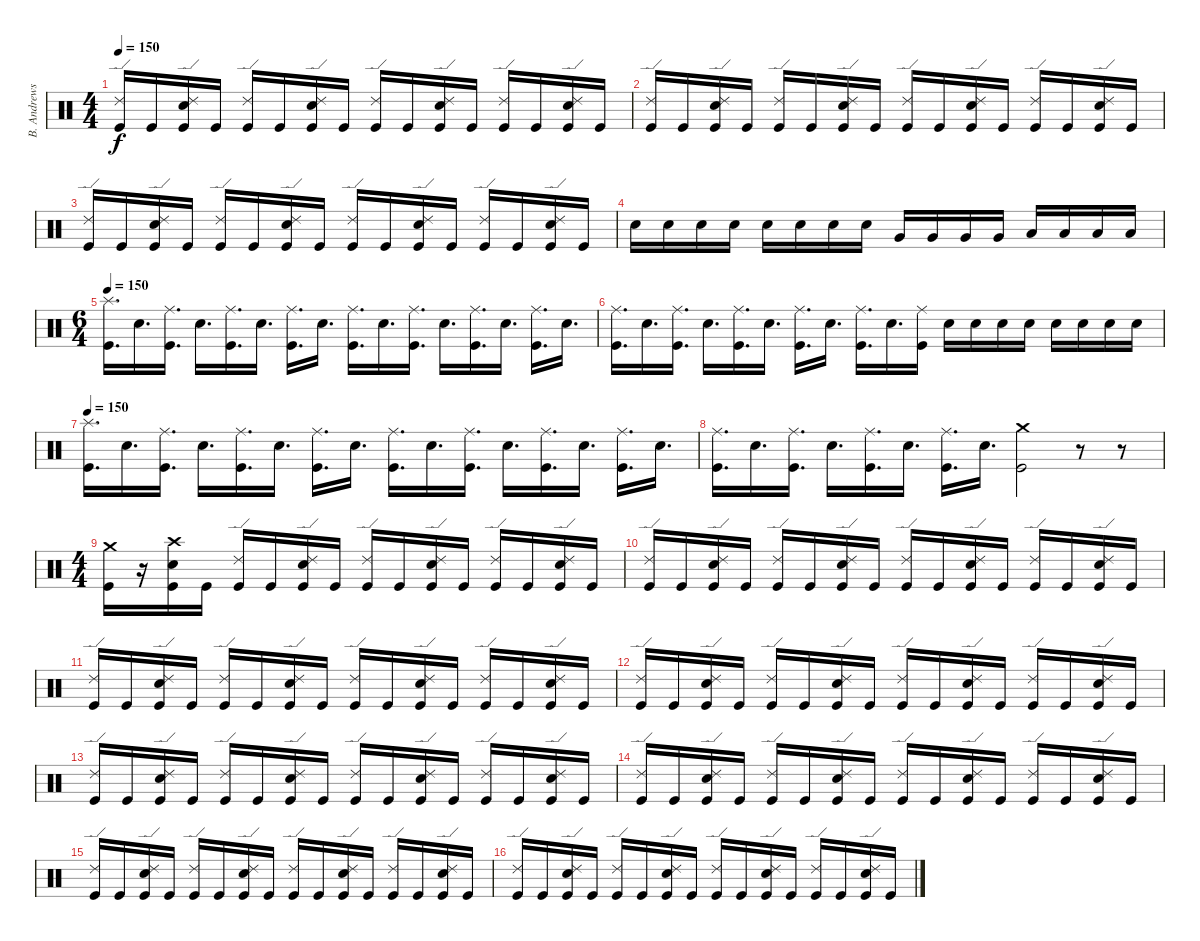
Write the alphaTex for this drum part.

\track ("B. Andrews" "B. Andrews") {instrument percussion}
\staff {score}
\articulation defaults
\ts (4 4)
\tempo 150
\clef neutral
\ks c
("Ride (edge) 2" "Kick (hit)").16{dy f} "Kick (hit)".16 ("Ride (edge) 2" "Electric Snare (hit)" "Kick (hit)").16 "Kick (hit)".16 ("Ride (edge) 2" "Kick (hit)").16 "Kick (hit)".16 ("Ride (edge) 2" "Electric Snare (hit)" "Kick (hit)").16 "Kick (hit)".16 ("Ride (edge) 2" "Kick (hit)").16 "Kick (hit)".16 ("Ride (edge) 2" "Electric Snare (hit)" "Kick (hit)").16 "Kick (hit)".16 ("Ride (edge) 2" "Kick (hit)").16 "Kick (hit)".16 ("Ride (edge) 2" "Electric Snare (hit)" "Kick (hit)").16 "Kick (hit)".16 |
("Ride (edge) 2" "Kick (hit)").16 "Kick (hit)".16 ("Ride (edge) 2" "Electric Snare (hit)" "Kick (hit)").16 "Kick (hit)".16 ("Ride (edge) 2" "Kick (hit)").16 "Kick (hit)".16 ("Ride (edge) 2" "Electric Snare (hit)" "Kick (hit)").16 "Kick (hit)".16 ("Ride (edge) 2" "Kick (hit)").16 "Kick (hit)".16 ("Ride (edge) 2" "Electric Snare (hit)" "Kick (hit)").16 "Kick (hit)".16 ("Ride (edge) 2" "Kick (hit)").16 "Kick (hit)".16 ("Ride (edge) 2" "Electric Snare (hit)" "Kick (hit)").16 "Kick (hit)".16 |
("Ride (edge) 2" "Kick (hit)").16 "Kick (hit)".16 ("Ride (edge) 2" "Electric Snare (hit)" "Kick (hit)").16 "Kick (hit)".16 ("Ride (edge) 2" "Kick (hit)").16 "Kick (hit)".16 ("Ride (edge) 2" "Electric Snare (hit)" "Kick (hit)").16 "Kick (hit)".16 ("Ride (edge) 2" "Kick (hit)").16 "Kick (hit)".16 ("Ride (edge) 2" "Electric Snare (hit)" "Kick (hit)").16 "Kick (hit)".16 ("Ride (edge) 2" "Kick (hit)").16 "Kick (hit)".16 ("Ride (edge) 2" "Electric Snare (hit)" "Kick (hit)").16 "Kick (hit)".16 |
"Electric Snare (hit)".16 "Electric Snare (hit)".16 "Electric Snare (hit)".16 "Electric Snare (hit)".16 "Electric Snare (hit)".16 "Electric Snare (hit)".16 "Electric Snare (hit)".16 "Electric Snare (hit)".16 "Very Low Tom (hit)".16 "Very Low Tom (hit)".16 "Very Low Tom (hit)".16 "Very Low Tom (hit)".16 "Low Floor Tom (hit)".16 "Low Floor Tom (hit)".16 "Low Floor Tom (hit)".16 "Low Floor Tom (hit)".16 |
\ts (6 4)
\tempo 180
\tempo 150
("Splash (hit)" "Kick (hit)").16{d} "Electric Snare (hit)".16{d} ("Ride (middle)" "Kick (hit)").16{d} "Electric Snare (hit)".16{d} ("Ride (middle)" "Kick (hit)").16{d} "Electric Snare (hit)".16{d} ("Ride (middle)" "Kick (hit)").16{d} "Electric Snare (hit)".16{d} ("Ride (middle)" "Kick (hit)").16{d} "Electric Snare (hit)".16{d} ("Ride (middle)" "Kick (hit)").16{d} "Electric Snare (hit)".16{d} ("Ride (middle)" "Kick (hit)").16{d} "Electric Snare (hit)".16{d} ("Ride (middle)" "Kick (hit)").16{d} "Electric Snare (hit)".16{d} |
("Ride (middle)" "Kick (hit)").16{d} "Electric Snare (hit)".16{d} ("Ride (middle)" "Kick (hit)").16{d} "Electric Snare (hit)".16{d} ("Ride (middle)" "Kick (hit)").16{d} "Electric Snare (hit)".16{d} ("Ride (middle)" "Kick (hit)").16{d} "Electric Snare (hit)".16{d} ("Ride (middle)" "Kick (hit)").16{d} "Electric Snare (hit)".16{d} ("Ride (middle)" "Kick (hit)").16 "Electric Snare (hit)".16 "Electric Snare (hit)".16 "Electric Snare (hit)".16 "Electric Snare (hit)".16 "Electric Snare (hit)".16 "Electric Snare (hit)".16 "Electric Snare (hit)".16 "Electric Snare (hit)".16 |
\tempo 150
("Splash (hit)" "Kick (hit)").16{d} "Electric Snare (hit)".16{d} ("Ride (middle)" "Kick (hit)").16{d} "Electric Snare (hit)".16{d} ("Ride (middle)" "Kick (hit)").16{d} "Electric Snare (hit)".16{d} ("Ride (middle)" "Kick (hit)").16{d} "Electric Snare (hit)".16{d} ("Ride (middle)" "Kick (hit)").16{d} "Electric Snare (hit)".16{d} ("Ride (middle)" "Kick (hit)").16{d} "Electric Snare (hit)".16{d} ("Ride (middle)" "Kick (hit)").16{d} "Electric Snare (hit)".16{d} ("Ride (middle)" "Kick (hit)").16{d} "Electric Snare (hit)".16{d} |
("Ride (middle)" "Kick (hit)").16{d} "Electric Snare (hit)".16{d} ("Ride (middle)" "Kick (hit)").16{d} "Electric Snare (hit)".16{d} ("Ride (middle)" "Kick (hit)").16{d} "Electric Snare (hit)".16{d} ("Ride (middle)" "Kick (hit)").16{d} "Electric Snare (hit)".16{d} ("Crash medium (hit)" "Kick (hit)").2 r.8 r.8 |
\ts (4 4)
("Crash medium (hit)" "Kick (hit)").16 r.16 ("Crash high (hit)" "Electric Snare (hit)" "Kick (hit)").16 "Kick (hit)".16 ("Ride (edge) 2" "Kick (hit)").16 "Kick (hit)".16 ("Ride (edge) 2" "Electric Snare (hit)" "Kick (hit)").16 "Kick (hit)".16 ("Ride (edge) 2" "Kick (hit)").16 "Kick (hit)".16 ("Ride (edge) 2" "Electric Snare (hit)" "Kick (hit)").16 "Kick (hit)".16 ("Ride (edge) 2" "Kick (hit)").16 "Kick (hit)".16 ("Ride (edge) 2" "Electric Snare (hit)" "Kick (hit)").16 "Kick (hit)".16 |
("Ride (edge) 2" "Kick (hit)").16 "Kick (hit)".16 ("Ride (edge) 2" "Electric Snare (hit)" "Kick (hit)").16 "Kick (hit)".16 ("Ride (edge) 2" "Kick (hit)").16 "Kick (hit)".16 ("Ride (edge) 2" "Electric Snare (hit)" "Kick (hit)").16 "Kick (hit)".16 ("Ride (edge) 2" "Kick (hit)").16 "Kick (hit)".16 ("Ride (edge) 2" "Electric Snare (hit)" "Kick (hit)").16 "Kick (hit)".16 ("Ride (edge) 2" "Kick (hit)").16 "Kick (hit)".16 ("Ride (edge) 2" "Electric Snare (hit)" "Kick (hit)").16 "Kick (hit)".16 |
("Ride (edge) 2" "Kick (hit)").16 "Kick (hit)".16 ("Ride (edge) 2" "Electric Snare (hit)" "Kick (hit)").16 "Kick (hit)".16 ("Ride (edge) 2" "Kick (hit)").16 "Kick (hit)".16 ("Ride (edge) 2" "Electric Snare (hit)" "Kick (hit)").16 "Kick (hit)".16 ("Ride (edge) 2" "Kick (hit)").16 "Kick (hit)".16 ("Ride (edge) 2" "Electric Snare (hit)" "Kick (hit)").16 "Kick (hit)".16 ("Ride (edge) 2" "Kick (hit)").16 "Kick (hit)".16 ("Ride (edge) 2" "Electric Snare (hit)" "Kick (hit)").16 "Kick (hit)".16 |
("Ride (edge) 2" "Kick (hit)").16 "Kick (hit)".16 ("Ride (edge) 2" "Electric Snare (hit)" "Kick (hit)").16 "Kick (hit)".16 ("Ride (edge) 2" "Kick (hit)").16 "Kick (hit)".16 ("Ride (edge) 2" "Electric Snare (hit)" "Kick (hit)").16 "Kick (hit)".16 ("Ride (edge) 2" "Kick (hit)").16 "Kick (hit)".16 ("Ride (edge) 2" "Electric Snare (hit)" "Kick (hit)").16 "Kick (hit)".16 ("Ride (edge) 2" "Kick (hit)").16 "Kick (hit)".16 ("Ride (edge) 2" "Electric Snare (hit)" "Kick (hit)").16 "Kick (hit)".16 |
("Ride (edge) 2" "Kick (hit)").16 "Kick (hit)".16 ("Ride (edge) 2" "Electric Snare (hit)" "Kick (hit)").16 "Kick (hit)".16 ("Ride (edge) 2" "Kick (hit)").16 "Kick (hit)".16 ("Ride (edge) 2" "Electric Snare (hit)" "Kick (hit)").16 "Kick (hit)".16 ("Ride (edge) 2" "Kick (hit)").16 "Kick (hit)".16 ("Ride (edge) 2" "Electric Snare (hit)" "Kick (hit)").16 "Kick (hit)".16 ("Ride (edge) 2" "Kick (hit)").16 "Kick (hit)".16 ("Ride (edge) 2" "Electric Snare (hit)" "Kick (hit)").16 "Kick (hit)".16 |
("Ride (edge) 2" "Kick (hit)").16 "Kick (hit)".16 ("Ride (edge) 2" "Electric Snare (hit)" "Kick (hit)").16 "Kick (hit)".16 ("Ride (edge) 2" "Kick (hit)").16 "Kick (hit)".16 ("Ride (edge) 2" "Electric Snare (hit)" "Kick (hit)").16 "Kick (hit)".16 ("Ride (edge) 2" "Kick (hit)").16 "Kick (hit)".16 ("Ride (edge) 2" "Electric Snare (hit)" "Kick (hit)").16 "Kick (hit)".16 ("Ride (edge) 2" "Kick (hit)").16 "Kick (hit)".16 ("Ride (edge) 2" "Electric Snare (hit)" "Kick (hit)").16 "Kick (hit)".16 |
("Ride (edge) 2" "Kick (hit)").16 "Kick (hit)".16 ("Ride (edge) 2" "Electric Snare (hit)" "Kick (hit)").16 "Kick (hit)".16 ("Ride (edge) 2" "Kick (hit)").16 "Kick (hit)".16 ("Ride (edge) 2" "Electric Snare (hit)" "Kick (hit)").16 "Kick (hit)".16 ("Ride (edge) 2" "Kick (hit)").16 "Kick (hit)".16 ("Ride (edge) 2" "Electric Snare (hit)" "Kick (hit)").16 "Kick (hit)".16 ("Ride (edge) 2" "Kick (hit)").16 "Kick (hit)".16 ("Ride (edge) 2" "Electric Snare (hit)" "Kick (hit)").16 "Kick (hit)".16 |
("Ride (edge) 2" "Kick (hit)").16 "Kick (hit)".16 ("Ride (edge) 2" "Electric Snare (hit)" "Kick (hit)").16 "Kick (hit)".16 ("Ride (edge) 2" "Kick (hit)").16 "Kick (hit)".16 ("Ride (edge) 2" "Electric Snare (hit)" "Kick (hit)").16 "Kick (hit)".16 ("Ride (edge) 2" "Kick (hit)").16 "Kick (hit)".16 ("Ride (edge) 2" "Electric Snare (hit)" "Kick (hit)").16 "Kick (hit)".16 ("Ride (edge) 2" "Kick (hit)").16 "Kick (hit)".16 ("Ride (edge) 2" "Electric Snare (hit)" "Kick (hit)").16 "Kick (hit)".16
